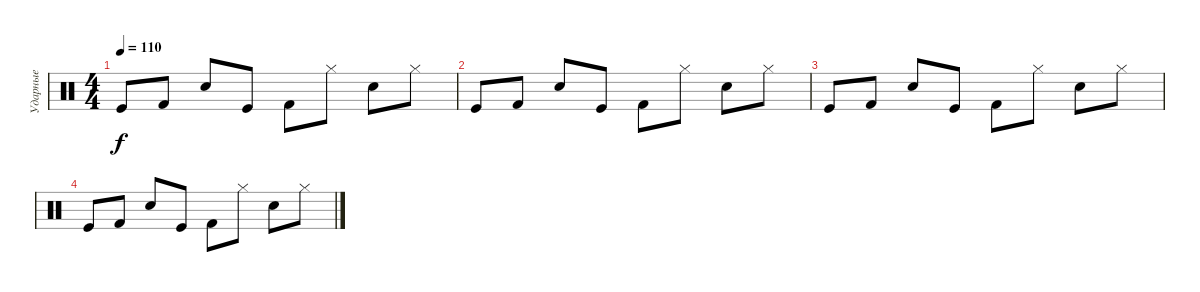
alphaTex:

\track ("Ударные" "Ударные") {instrument percussion}
\staff {score}
\articulation defaults
\ts (4 4)
\tempo 110
\clef neutral
\ks c "Kick (hit)".8{dy f} "Kick (hit) 2".8 "Snare (hit) 2".8 "Kick (hit)".8 "Kick (hit) 2".8 "Hi-Hat (closed)".8 "Snare (hit) 2".8 "Hi-Hat (closed)".8
|
"Kick (hit)".8 "Kick (hit) 2".8 "Snare (hit) 2".8 "Kick (hit)".8 "Kick (hit) 2".8 "Hi-Hat (closed)".8 "Snare (hit) 2".8 "Hi-Hat (closed)".8 |
"Kick (hit)".8 "Kick (hit) 2".8 "Snare (hit) 2".8 "Kick (hit)".8 "Kick (hit) 2".8 "Hi-Hat (closed)".8 "Snare (hit) 2".8 "Hi-Hat (closed)".8 |
"Kick (hit)".8 "Kick (hit) 2".8 "Snare (hit) 2".8 "Kick (hit)".8 "Kick (hit) 2".8 "Hi-Hat (closed)".8 "Snare (hit) 2".8 "Hi-Hat (closed)".8
